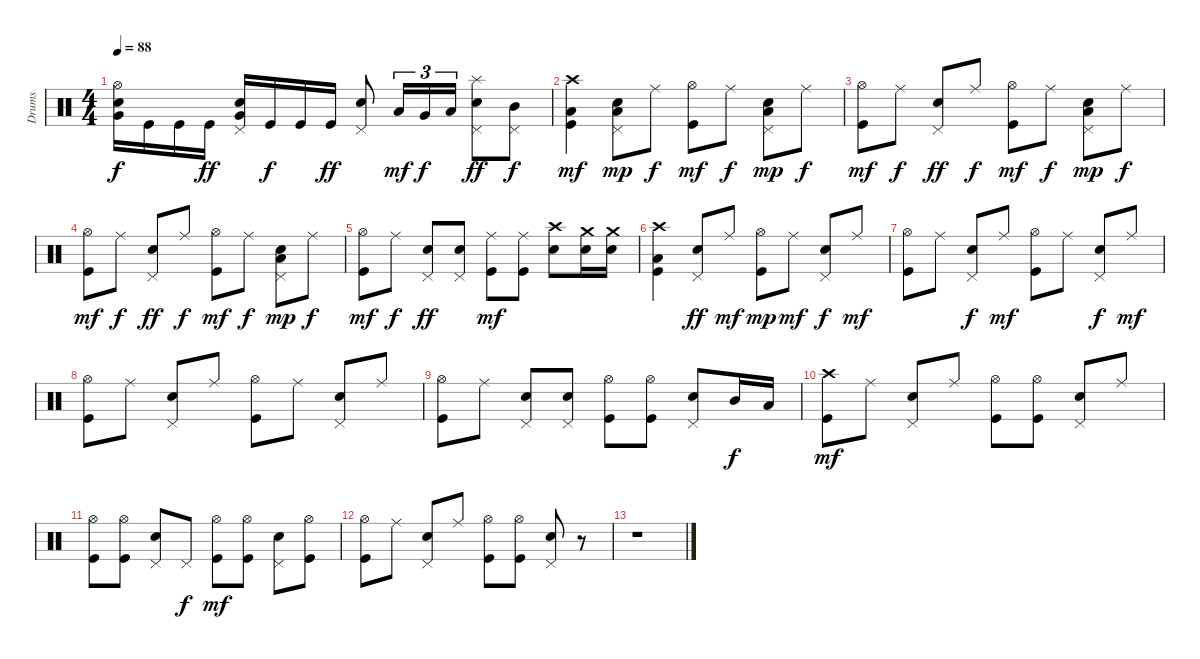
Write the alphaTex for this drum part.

\track ("Drums" "Drums") {instrument percussion}
\staff {score}
\articulation defaults
\ts (4 4)
\tempo 88
\clef neutral
\ks c
("Hi-Hat (open)" "Snare (hit) 2" "Very Low Tom (hit)").16{dy f} "Kick (hit)".16 "Kick (hit)".16 "Kick (hit)".16{dy ff} ("Pedal Hi-Hat (hit)" "Snare (hit) 2" "Very Low Tom (hit)").16 "Kick (hit)".16{dy f} "Kick (hit)".16 "Kick (hit)".16{dy ff} ("Pedal Hi-Hat (hit)" "Snare (hit) 2").8 "Low Tom (hit)".16{tu (3 2) dy mf} "Very Low Tom (hit)".16{tu (3 2) dy f} "Low Floor Tom (hit)".16{tu (3 2)} ("Splash (hit)" "Pedal Hi-Hat (hit)" "Snare (hit) 2").8{dy ff} ("Pedal Hi-Hat (hit)" "Mid Tom (hit)").8{dy f} |
("Crash high (hit)" "Kick (hit)" "Low Floor Tom (hit)").4{dy mf} ("Pedal Hi-Hat (hit)" "Snare (hit) 2" "Low Tom (hit)").8{dy mp} "Ride (middle)".8{dy f} ("Hi-Hat (open)" "Kick (hit)").8{dy mf} "Ride (middle)".8{dy f} ("Pedal Hi-Hat (hit)" "Snare (hit) 2" "Low Tom (hit)").8{dy mp} "Ride (middle)".8{dy f} |
("Hi-Hat (open)" "Kick (hit)").8{dy mf} "Ride (middle)".8{dy f} ("Pedal Hi-Hat (hit)" "Snare (hit) 2").8{dy ff} "Ride (middle)".8{dy f} ("Hi-Hat (open)" "Kick (hit)").8{dy mf} "Ride (middle)".8{dy f} ("Pedal Hi-Hat (hit)" "Snare (hit) 2" "Low Tom (hit)").8{dy mp} "Ride (middle)".8{dy f} |
("Hi-Hat (open)" "Kick (hit)").8{dy mf} "Ride (middle)".8{dy f} ("Pedal Hi-Hat (hit)" "Snare (hit) 2").8{dy ff} "Ride (middle)".8{dy f} ("Hi-Hat (open)" "Kick (hit)").8{dy mf} "Ride (middle)".8{dy f} ("Pedal Hi-Hat (hit)" "Snare (hit) 2" "Low Tom (hit)").8{dy mp} "Ride (middle)".8{dy f} |
("Hi-Hat (open)" "Kick (hit)").8{dy mf} "Ride (middle)".8{dy f} ("Pedal Hi-Hat (hit)" "Snare (hit) 2").8{dy ff} ("Pedal Hi-Hat (hit)" "Snare (hit) 2").8 ("Ride (middle)" "Kick (hit)").8{dy mf} ("Ride (middle)" "Kick (hit)").8 ("Crash high (hit)" "Snare (hit) 2").8 ("Crash medium (hit)" "Snare (hit) 2").16 ("Crash medium (hit)" "Snare (hit) 2").16 |
("Crash high (hit)" "Kick (hit)" "Low Floor Tom (hit)").4 ("Pedal Hi-Hat (hit)" "Snare (hit) 2").8{dy ff} "Ride (middle)".8{dy mf} ("Hi-Hat (open)" "Kick (hit)").8{dy mp} "Ride (middle)".8{dy mf} ("Pedal Hi-Hat (hit)" "Snare (hit) 2").8{dy f} "Ride (middle)".8{dy mf} |
("Hi-Hat (open)" "Kick (hit)").8 "Ride (middle)".8 ("Pedal Hi-Hat (hit)" "Snare (hit) 2").8{dy f} "Ride (middle)".8{dy mf} ("Hi-Hat (open)" "Kick (hit)").8 "Ride (middle)".8 ("Pedal Hi-Hat (hit)" "Snare (hit) 2").8{dy f} "Ride (middle)".8{dy mf} |
("Hi-Hat (open)" "Kick (hit)").8 "Ride (middle)".8 ("Pedal Hi-Hat (hit)" "Snare (hit) 2").8 "Ride (middle)".8 ("Hi-Hat (open)" "Kick (hit)").8 "Ride (middle)".8 ("Pedal Hi-Hat (hit)" "Snare (hit) 2").8 "Ride (middle)".8 |
("Hi-Hat (open)" "Kick (hit)").8{volume 0} "Ride (middle)".8 ("Pedal Hi-Hat (hit)" "Snare (hit) 2").8 ("Pedal Hi-Hat (hit)" "Snare (hit) 2").8 ("Hi-Hat (open)" "Kick (hit)").8 ("Hi-Hat (open)" "Kick (hit)").8 ("Pedal Hi-Hat (hit)" "Snare (hit) 2").8 "Mid Tom (hit)".16{dy f} "Low Tom (hit)".16 |
("Crash high (hit)" "Kick (hit)").8{dy mf} "Ride (middle)".8 ("Pedal Hi-Hat (hit)" "Snare (hit) 2").8 "Ride (middle)".8 ("Hi-Hat (open)" "Kick (hit)").8 ("Hi-Hat (open)" "Kick (hit)").8 ("Pedal Hi-Hat (hit)" "Snare (hit) 2").8 "Ride (middle)".8 |
("Hi-Hat (open)" "Kick (hit)").8 ("Hi-Hat (open)" "Kick (hit)").8 ("Pedal Hi-Hat (hit)" "Snare (hit) 2").8 "Pedal Hi-Hat (hit)".8{dy f} ("Hi-Hat (open)" "Kick (hit)").8{dy mf} ("Hi-Hat (open)" "Kick (hit)").8 ("Pedal Hi-Hat (hit)" "Snare (hit) 2").8 ("Hi-Hat (open)" "Kick (hit)").8 |
("Hi-Hat (open)" "Kick (hit)").8 "Ride (middle)".8 ("Pedal Hi-Hat (hit)" "Snare (hit) 2").8 "Ride (middle)".8 ("Hi-Hat (open)" "Kick (hit)").8 ("Hi-Hat (open)" "Kick (hit)").8 ("Pedal Hi-Hat (hit)" "Snare (hit) 2").8 r.8 |
r.1
